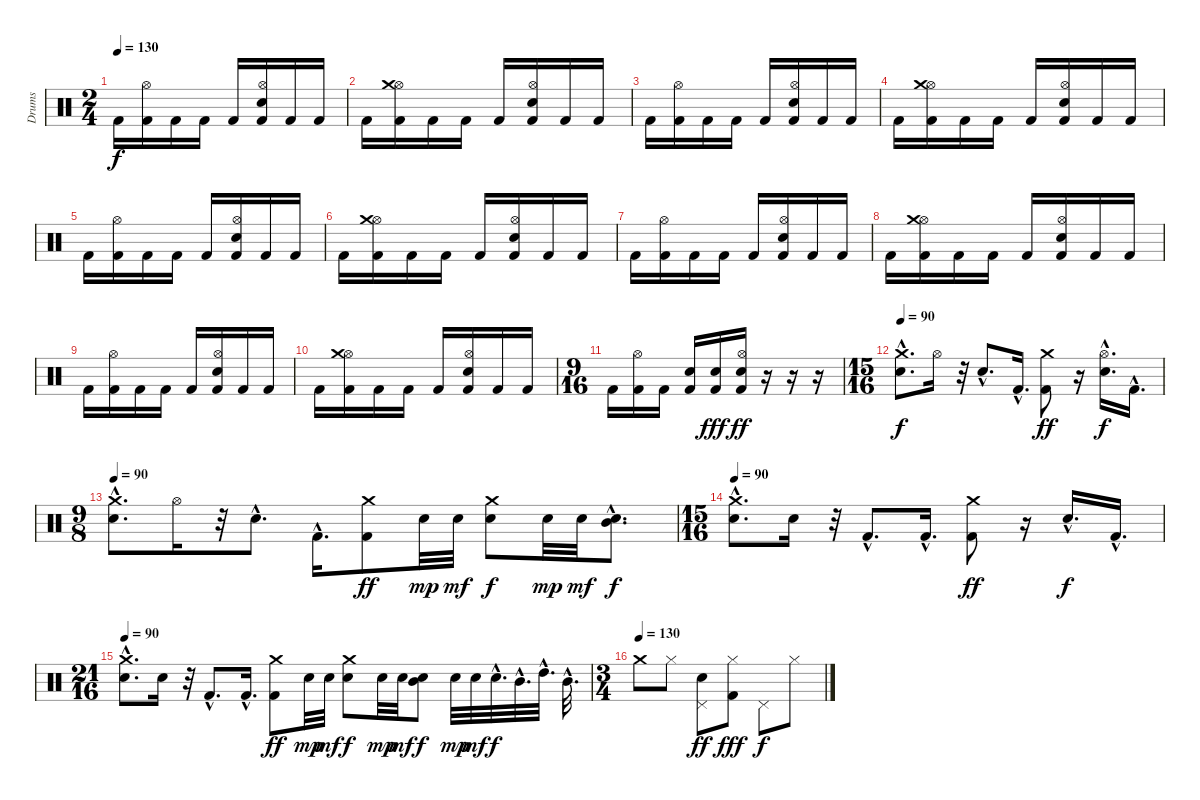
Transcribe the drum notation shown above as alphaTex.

\track ("Drums" "Drums") {instrument percussion}
\staff {score}
\articulation defaults
\ts (2 4)
\tempo 130
\clef neutral
\ks c "Kick (hit) 2".16{dy f}
("Kick (hit) 2" "Hi-Hat (open)").16 "Kick (hit) 2".16 "Kick (hit) 2".16 "Kick (hit) 2".16 ("Kick (hit) 2" "Electric Snare (hit)" "Hi-Hat (open)").16 "Kick (hit) 2".16 "Kick (hit) 2".16 |
"Kick (hit) 2".16 ("Kick (hit) 2" "Hi-Hat (open)" "Crash medium (hit)").16 "Kick (hit) 2".16 "Kick (hit) 2".16 "Kick (hit) 2".16 ("Kick (hit) 2" "Electric Snare (hit)" "Hi-Hat (open)").16 "Kick (hit) 2".16 "Kick (hit) 2".16 |
"Kick (hit) 2".16 ("Kick (hit) 2" "Hi-Hat (open)").16 "Kick (hit) 2".16 "Kick (hit) 2".16 "Kick (hit) 2".16 ("Kick (hit) 2" "Electric Snare (hit)" "Hi-Hat (open)").16 "Kick (hit) 2".16 "Kick (hit) 2".16 |
"Kick (hit) 2".16 ("Kick (hit) 2" "Hi-Hat (open)" "Crash medium (hit)").16 "Kick (hit) 2".16 "Kick (hit) 2".16 "Kick (hit) 2".16 ("Kick (hit) 2" "Electric Snare (hit)" "Hi-Hat (open)").16 "Kick (hit) 2".16 "Kick (hit) 2".16 |
"Kick (hit) 2".16 ("Kick (hit) 2" "Hi-Hat (open)").16 "Kick (hit) 2".16 "Kick (hit) 2".16 "Kick (hit) 2".16 ("Kick (hit) 2" "Electric Snare (hit)" "Hi-Hat (open)").16 "Kick (hit) 2".16 "Kick (hit) 2".16 |
"Kick (hit) 2".16 ("Kick (hit) 2" "Hi-Hat (open)" "Crash medium (hit)").16 "Kick (hit) 2".16 "Kick (hit) 2".16 "Kick (hit) 2".16 ("Kick (hit) 2" "Electric Snare (hit)" "Hi-Hat (open)").16 "Kick (hit) 2".16 "Kick (hit) 2".16 |
"Kick (hit) 2".16 ("Kick (hit) 2" "Hi-Hat (open)").16 "Kick (hit) 2".16 "Kick (hit) 2".16 "Kick (hit) 2".16 ("Kick (hit) 2" "Electric Snare (hit)" "Hi-Hat (open)").16 "Kick (hit) 2".16 "Kick (hit) 2".16 |
"Kick (hit) 2".16 ("Kick (hit) 2" "Hi-Hat (open)" "Crash medium (hit)").16 "Kick (hit) 2".16 "Kick (hit) 2".16 "Kick (hit) 2".16 ("Kick (hit) 2" "Electric Snare (hit)" "Hi-Hat (open)").16 "Kick (hit) 2".16 "Kick (hit) 2".16 |
"Kick (hit) 2".16 ("Kick (hit) 2" "Hi-Hat (open)").16 "Kick (hit) 2".16 "Kick (hit) 2".16 "Kick (hit) 2".16 ("Kick (hit) 2" "Electric Snare (hit)" "Hi-Hat (open)").16 "Kick (hit) 2".16 "Kick (hit) 2".16 |
"Kick (hit) 2".16 ("Kick (hit) 2" "Hi-Hat (open)" "Crash medium (hit)").16 "Kick (hit) 2".16 "Kick (hit) 2".16 "Kick (hit) 2".16 ("Kick (hit) 2" "Electric Snare (hit)" "Hi-Hat (open)").16 "Kick (hit) 2".16 "Kick (hit) 2".16 |
\ts (9 16)
"Kick (hit) 2".16 ("Kick (hit) 2" "Hi-Hat (open)").16 "Kick (hit) 2".16 ("Kick (hit) 2" "Electric Snare (hit)").16 ("Kick (hit) 2" "Electric Snare (hit)").16{dy fff} ("Kick (hit) 2" "Snare (hit) 2" "Hi-Hat (open)").16{dy ff} r.16 r.16 r.16 |
\ts (15 16)
\tempo 90
("Snare (hit) 2"{hac} "Crash medium (hit)"{hac}).8{d dy f} "Hi-Hat (open)".16 r.32 "Electric Snare (hit)"{hac}.8{d} "Kick (hit) 2"{hac}.16{d} ("Kick (hit) 2" "Crash medium (hit)").8{dy ff} r.16 ("Electric Snare (hit)"{hac} "Hi-Hat (open)"{hac}).16{d dy f} "Kick (hit) 2"{hac}.16{d} |
\ts (9 8)
\tempo 90
("Snare (hit) 2"{hac} "Crash medium (hit)"{hac}).8{d} "Hi-Hat (open)".16 r.32 "Electric Snare (hit)"{hac}.8{d} "Kick (hit) 2"{hac}.16{d} ("Kick (hit) 2" "Crash medium (hit)").8{dy ff} "Electric Snare (hit)".32{dy mp} "Electric Snare (hit)".32{dy mf} ("Electric Snare (hit)" "Crash medium (hit)").8{dy f} "Electric Snare (hit)".32{dy mp} "Electric Snare (hit)".32{dy mf} ("Electric Snare (hit)"{hac} "Mid Tom (hit)"{hac}).8{d dy f} |
\ts (15 16)
\tempo 90
("Snare (hit) 2"{hac} "Crash medium (hit)"{hac}).8{d} "Electric Snare (hit)".16 r.32 "Kick (hit) 2"{hac}.8{d} "Kick (hit) 2"{hac}.16{d} ("Kick (hit) 2" "Crash medium (hit)").8{dy ff} r.16 "Electric Snare (hit)"{hac}.16{d dy f} "Kick (hit) 2"{hac}.16{d} |
\ts (21 16)
\tempo 90
("Snare (hit) 2"{hac} "Crash medium (hit)"{hac}).8{d} "Electric Snare (hit)".16 r.32 "Kick (hit) 2"{hac}.8{d} "Kick (hit) 2"{hac}.16{d} ("Kick (hit) 2" "Crash medium (hit)").8{dy ff} "Electric Snare (hit)".32{dy mp} "Electric Snare (hit)".32{dy mf} ("Electric Snare (hit)" "Crash medium (hit)").8{dy f} "Electric Snare (hit)".32{dy mp} "Electric Snare (hit)".32{dy mf} ("Electric Snare (hit)" "Mid Tom (hit)").8{dy f} "Electric Snare (hit)".32{dy mp} "Electric Snare (hit)".32{dy mf} "Electric Snare (hit)"{hac}.32{d dy f} "Mid Tom (hit)"{hac}.32{d} "High Tom (hit)"{hac}.32{d} "Mid Tom (hit)"{hac}.32{d} |
\ts (3 4)
\tempo (130)
"Crash medium (hit)".8 "Hi-Hat (closed)".8 ("Electric Snare (hit)" "Pedal Hi-Hat (hit)").8{dy ff} ("Kick (hit) 2" "Hi-Hat (closed)").8{dy fff} "Pedal Hi-Hat (hit)".8{dy f} "Hi-Hat (closed)".8
